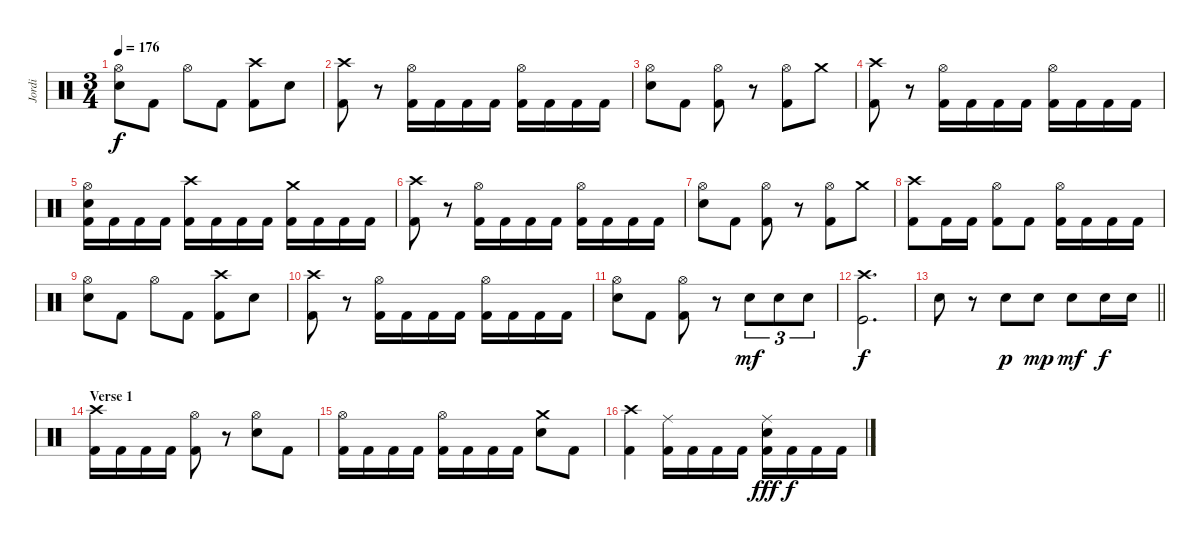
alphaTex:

\track ("Jordi" "Jordi") {instrument percussion}
\staff {score}
\articulation defaults
\ts (3 4)
\tempo 176
\clef neutral
\ks c
("Hi-Hat (open)" "Snare (hit) 2").8{dy f} "Kick (hit) 2".8 "Hi-Hat (open)".8 "Kick (hit) 2".8 ("Crash high (hit)" "Kick (hit) 2").8 "Snare (hit) 2".8 |
("Crash high (hit)" "Kick (hit) 2").8 r.8 ("Hi-Hat (open)" "Kick (hit) 2").16 "Kick (hit) 2".16 "Kick (hit) 2".16 "Kick (hit) 2".16 ("Hi-Hat (open)" "Kick (hit) 2").16 "Kick (hit) 2".16 "Kick (hit) 2".16 "Kick (hit) 2".16 |
("Hi-Hat (open)" "Snare (hit) 2").8 "Kick (hit) 2".8 ("Hi-Hat (open)" "Kick (hit) 2").8 r.8 ("Hi-Hat (open)" "Kick (hit) 2").8 "Crash medium (hit)".8 |
("Crash high (hit)" "Kick (hit) 2").8 r.8 ("Hi-Hat (open)" "Kick (hit) 2").16 "Kick (hit) 2".16 "Kick (hit) 2".16 "Kick (hit) 2".16 ("Hi-Hat (open)" "Kick (hit) 2").16 "Kick (hit) 2".16 "Kick (hit) 2".16 "Kick (hit) 2".16 |
("Hi-Hat (open)" "Snare (hit) 2" "Kick (hit) 2").16 "Kick (hit) 2".16 "Kick (hit) 2".16 "Kick (hit) 2".16 ("Crash high (hit)" "Kick (hit) 2").16 "Kick (hit) 2".16 "Kick (hit) 2".16 "Kick (hit) 2".16 ("Crash medium (hit)" "Kick (hit) 2").16 "Kick (hit) 2".16 "Kick (hit) 2".16 "Kick (hit) 2".16 |
("Crash high (hit)" "Kick (hit) 2").8 r.8 ("Hi-Hat (open)" "Kick (hit) 2").16 "Kick (hit) 2".16 "Kick (hit) 2".16 "Kick (hit) 2".16 ("Hi-Hat (open)" "Kick (hit) 2").16 "Kick (hit) 2".16 "Kick (hit) 2".16 "Kick (hit) 2".16 |
("Hi-Hat (open)" "Snare (hit) 2").8 "Kick (hit) 2".8 ("Hi-Hat (open)" "Kick (hit) 2").8 r.8 ("Hi-Hat (open)" "Kick (hit) 2").8 "Crash medium (hit)".8 |
("Crash high (hit)" "Kick (hit) 2").8 "Kick (hit) 2".16 "Kick (hit) 2".16 ("Hi-Hat (open)" "Kick (hit) 2").8 "Kick (hit) 2".8 ("Hi-Hat (open)" "Kick (hit) 2").16 "Kick (hit) 2".16 "Kick (hit) 2".16 "Kick (hit) 2".16 |
("Hi-Hat (open)" "Snare (hit) 2").8 "Kick (hit) 2".8 "Hi-Hat (open)".8 "Kick (hit) 2".8 ("Crash high (hit)" "Kick (hit) 2").8 "Snare (hit) 2".8 |
("Crash high (hit)" "Kick (hit) 2").8 r.8 ("Hi-Hat (open)" "Kick (hit) 2").16 "Kick (hit) 2".16 "Kick (hit) 2".16 "Kick (hit) 2".16 ("Hi-Hat (open)" "Kick (hit) 2").16 "Kick (hit) 2".16 "Kick (hit) 2".16 "Kick (hit) 2".16 |
("Hi-Hat (open)" "Snare (hit) 2").8 "Kick (hit) 2".8 ("Hi-Hat (open)" "Kick (hit) 2").8 r.8 "Snare (hit) 2".8{tu (3 2) dy mf} "Snare (hit) 2".8{tu (3 2)} "Snare (hit) 2".8{tu (3 2)} |
("Crash high (hit)" "Kick (hit)").2{d dy f} |
\barLineRight lightlight "Snare (hit) 2".8
r.8 "Snare (hit) 2".8{dy p} "Snare (hit) 2".8{dy mp} "Snare (hit) 2".8{dy mf} "Snare (hit) 2".16{dy f} "Snare (hit) 2".16 |
\section ("" "Verse 1")
("Crash high (hit)" "Kick (hit) 2").16 "Kick (hit) 2".16 "Kick (hit) 2".16 "Kick (hit) 2".16 ("Hi-Hat (open)" "Kick (hit) 2").8 r.8 ("Hi-Hat (open)" "Snare (hit) 2").8 "Kick (hit) 2".8 |
("Hi-Hat (open)" "Kick (hit) 2").16 "Kick (hit) 2".16 "Kick (hit) 2".16 "Kick (hit) 2".16 ("Hi-Hat (open)" "Kick (hit) 2").16 "Kick (hit) 2".16 "Kick (hit) 2".16 "Kick (hit) 2".16 ("Crash medium (hit)" "Snare (hit) 2").8 "Kick (hit) 2".8 |
("Crash high (hit)" "Kick (hit) 2").4 ("Ride (middle)" "Kick (hit) 2").16 "Kick (hit) 2".16 "Kick (hit) 2".16 "Kick (hit) 2".16 ("Ride (middle)" "Snare (hit) 2" "Kick (hit) 2").16{dy fff} "Kick (hit) 2".16{dy f} "Kick (hit) 2".16 "Kick (hit) 2".16
